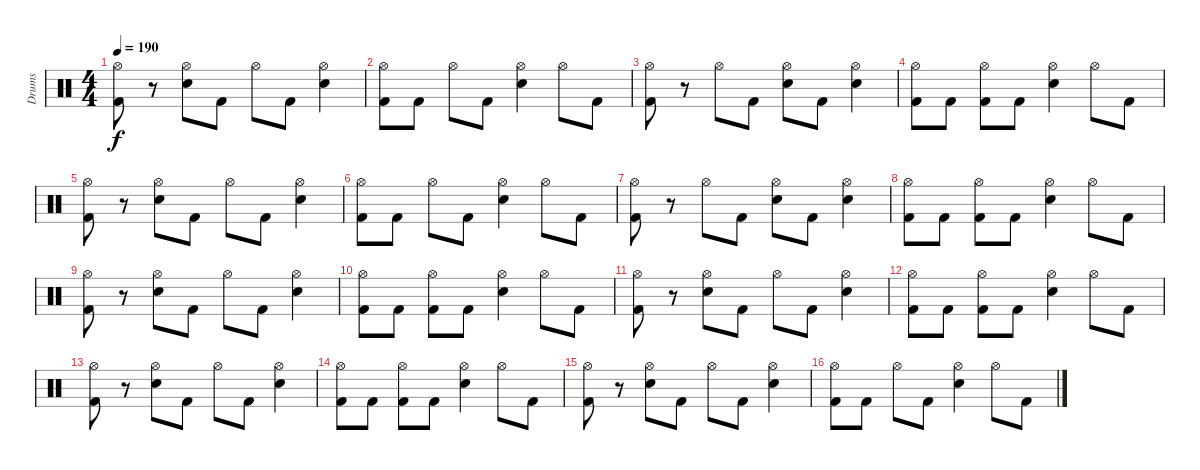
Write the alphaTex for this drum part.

\track ("Drums" "Drums") {instrument percussion}
\staff {score}
\articulation defaults
\ts (4 4)
\tempo 190
\clef neutral
\ks c
("Hi-Hat (open)" "Kick (hit) 2").8{dy f} r.8 ("Hi-Hat (open)" "Snare (hit) 2").8 "Kick (hit) 2".8 "Hi-Hat (open)".8 "Kick (hit) 2".8 ("Hi-Hat (open)" "Snare (hit) 2").4 |
("Hi-Hat (open)" "Kick (hit) 2").8 "Kick (hit) 2".8 "Hi-Hat (open)".8 "Kick (hit) 2".8 ("Hi-Hat (open)" "Snare (hit) 2").4 "Hi-Hat (open)".8 "Kick (hit) 2".8 |
("Hi-Hat (open)" "Kick (hit) 2").8 r.8 "Hi-Hat (open)".8 "Kick (hit) 2".8 ("Hi-Hat (open)" "Snare (hit) 2").8 "Kick (hit) 2".8 ("Hi-Hat (open)" "Snare (hit) 2").4 |
("Hi-Hat (open)" "Kick (hit) 2").8 "Kick (hit) 2".8 ("Hi-Hat (open)" "Kick (hit) 2").8 "Kick (hit) 2".8 ("Hi-Hat (open)" "Snare (hit) 2").4 "Hi-Hat (open)".8 "Kick (hit) 2".8 |
("Hi-Hat (open)" "Kick (hit) 2").8 r.8 ("Hi-Hat (open)" "Snare (hit) 2").8 "Kick (hit) 2".8 "Hi-Hat (open)".8 "Kick (hit) 2".8 ("Hi-Hat (open)" "Snare (hit) 2").4 |
("Hi-Hat (open)" "Kick (hit) 2").8 "Kick (hit) 2".8 "Hi-Hat (open)".8 "Kick (hit) 2".8 ("Hi-Hat (open)" "Snare (hit) 2").4 "Hi-Hat (open)".8 "Kick (hit) 2".8 |
("Hi-Hat (open)" "Kick (hit) 2").8 r.8 "Hi-Hat (open)".8 "Kick (hit) 2".8 ("Hi-Hat (open)" "Snare (hit) 2").8 "Kick (hit) 2".8 ("Hi-Hat (open)" "Snare (hit) 2").4 |
("Hi-Hat (open)" "Kick (hit) 2").8 "Kick (hit) 2".8 ("Hi-Hat (open)" "Kick (hit) 2").8 "Kick (hit) 2".8 ("Hi-Hat (open)" "Snare (hit) 2").4 "Hi-Hat (open)".8 "Kick (hit) 2".8 |
("Hi-Hat (open)" "Kick (hit) 2").8 r.8 ("Hi-Hat (open)" "Snare (hit) 2").8 "Kick (hit) 2".8 "Hi-Hat (open)".8 "Kick (hit) 2".8 ("Hi-Hat (open)" "Snare (hit) 2").4 |
("Hi-Hat (open)" "Kick (hit) 2").8 "Kick (hit) 2".8 ("Hi-Hat (open)" "Kick (hit) 2").8 "Kick (hit) 2".8 ("Hi-Hat (open)" "Snare (hit) 2").4 "Hi-Hat (open)".8 "Kick (hit) 2".8 |
("Hi-Hat (open)" "Kick (hit) 2").8 r.8 ("Hi-Hat (open)" "Snare (hit) 2").8 "Kick (hit) 2".8 "Hi-Hat (open)".8 "Kick (hit) 2".8 ("Hi-Hat (open)" "Snare (hit) 2").4 |
("Hi-Hat (open)" "Kick (hit) 2").8 "Kick (hit) 2".8 ("Hi-Hat (open)" "Kick (hit) 2").8 "Kick (hit) 2".8 ("Hi-Hat (open)" "Snare (hit) 2").4 "Hi-Hat (open)".8 "Kick (hit) 2".8 |
("Hi-Hat (open)" "Kick (hit) 2").8 r.8 ("Hi-Hat (open)" "Snare (hit) 2").8 "Kick (hit) 2".8 "Hi-Hat (open)".8 "Kick (hit) 2".8 ("Hi-Hat (open)" "Snare (hit) 2").4 |
("Hi-Hat (open)" "Kick (hit) 2").8 "Kick (hit) 2".8 ("Hi-Hat (open)" "Kick (hit) 2").8 "Kick (hit) 2".8 ("Hi-Hat (open)" "Snare (hit) 2").4 "Hi-Hat (open)".8 "Kick (hit) 2".8 |
("Hi-Hat (open)" "Kick (hit) 2").8 r.8 ("Hi-Hat (open)" "Snare (hit) 2").8 "Kick (hit) 2".8 "Hi-Hat (open)".8 "Kick (hit) 2".8 ("Hi-Hat (open)" "Snare (hit) 2").4 |
("Hi-Hat (open)" "Kick (hit) 2").8 "Kick (hit) 2".8 "Hi-Hat (open)".8 "Kick (hit) 2".8 ("Hi-Hat (open)" "Snare (hit) 2").4 "Hi-Hat (open)".8 "Kick (hit) 2".8
